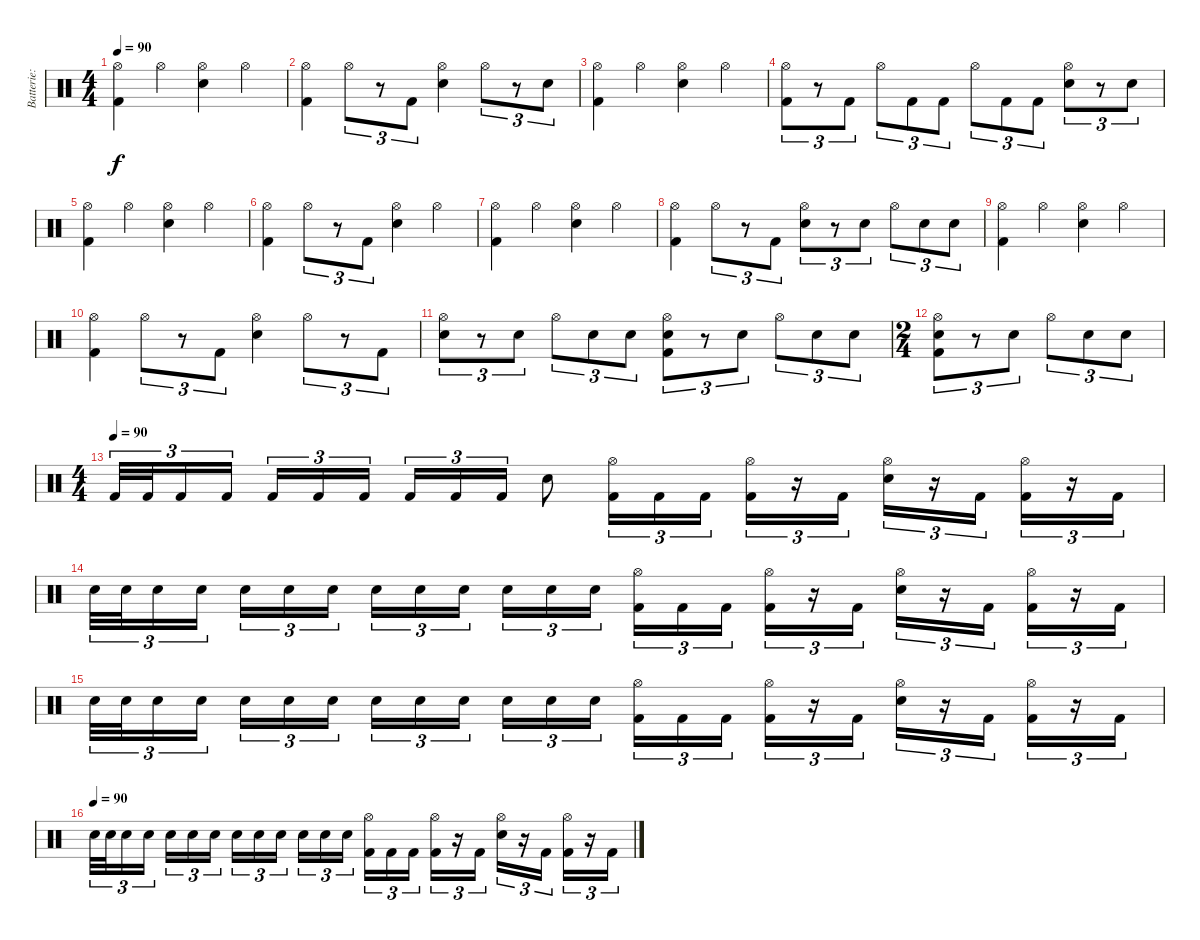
\track ("Batterie: Paul" "Batterie: ") {instrument percussion}
\staff {score}
\articulation defaults
\ts (4 4)
\tempo 90
\clef neutral
\ks c
("Hi-Hat (open)" "Kick (hit) 2").4{dy f} "Hi-Hat (open)".4 ("Hi-Hat (open)" "Snare (hit) 2").4 "Hi-Hat (open)".4 |
("Hi-Hat (open)" "Kick (hit) 2").4 "Hi-Hat (open)".8{tu (3 2)} r.8{tu (3 2)} "Kick (hit) 2".8{tu (3 2)} ("Hi-Hat (open)" "Snare (hit) 2").4 "Hi-Hat (open)".8{tu (3 2)} r.8{tu (3 2)} "Snare (hit) 2".8{tu (3 2)} |
("Hi-Hat (open)" "Kick (hit) 2").4 "Hi-Hat (open)".4 ("Hi-Hat (open)" "Snare (hit) 2").4 "Hi-Hat (open)".4 |
("Hi-Hat (open)" "Kick (hit) 2").8{tu (3 2)} r.8{tu (3 2)} "Kick (hit) 2".8{tu (3 2)} "Hi-Hat (open)".8{tu (3 2)} "Kick (hit) 2".8{tu (3 2)} "Kick (hit) 2".8{tu (3 2)} "Hi-Hat (open)".8{tu (3 2)} "Kick (hit) 2".8{tu (3 2)} "Kick (hit) 2".8{tu (3 2)} ("Hi-Hat (open)" "Snare (hit) 2").8{tu (3 2)} r.8{tu (3 2)} "Snare (hit) 2".8{tu (3 2)} |
("Hi-Hat (open)" "Kick (hit) 2").4 "Hi-Hat (open)".4 ("Hi-Hat (open)" "Snare (hit) 2").4 "Hi-Hat (open)".4 |
("Hi-Hat (open)" "Kick (hit) 2").4 "Hi-Hat (open)".8{tu (3 2)} r.8{tu (3 2)} "Kick (hit) 2".8{tu (3 2)} ("Hi-Hat (open)" "Snare (hit) 2").4 "Hi-Hat (open)".4 |
("Hi-Hat (open)" "Kick (hit) 2").4 "Hi-Hat (open)".4 ("Hi-Hat (open)" "Snare (hit) 2").4 "Hi-Hat (open)".4 |
("Hi-Hat (open)" "Kick (hit) 2").4 "Hi-Hat (open)".8{tu (3 2)} r.8{tu (3 2)} "Kick (hit) 2".8{tu (3 2)} ("Hi-Hat (open)" "Snare (hit) 2").8{tu (3 2)} r.8{tu (3 2)} "Snare (hit) 2".8{tu (3 2)} "Hi-Hat (open)".8{tu (3 2)} "Snare (hit) 2".8{tu (3 2)} "Snare (hit) 2".8{tu (3 2)} |
("Hi-Hat (open)" "Kick (hit) 2").4 "Hi-Hat (open)".4 ("Hi-Hat (open)" "Snare (hit) 2").4 "Hi-Hat (open)".4 |
("Hi-Hat (open)" "Kick (hit) 2").4 "Hi-Hat (open)".8{tu (3 2)} r.8{tu (3 2)} "Kick (hit) 2".8{tu (3 2)} ("Hi-Hat (open)" "Snare (hit) 2").4 "Hi-Hat (open)".8{tu (3 2)} r.8{tu (3 2)} "Kick (hit) 2".8{tu (3 2)} |
("Hi-Hat (open)" "Snare (hit) 2").8{tu (3 2)} r.8{tu (3 2)} "Snare (hit) 2".8{tu (3 2)} "Hi-Hat (open)".8{tu (3 2)} "Snare (hit) 2".8{tu (3 2)} "Snare (hit) 2".8{tu (3 2)} ("Hi-Hat (open)" "Snare (hit) 2" "Kick (hit) 2").8{tu (3 2)} r.8{tu (3 2)} "Snare (hit) 2".8{tu (3 2)} "Hi-Hat (open)".8{tu (3 2)} "Snare (hit) 2".8{tu (3 2)} "Snare (hit) 2".8{tu (3 2)} |
\ts (2 4)
("Hi-Hat (open)" "Snare (hit) 2" "Kick (hit) 2").8{tu (3 2)} r.8{tu (3 2)} "Snare (hit) 2".8{tu (3 2)} "Hi-Hat (open)".8{tu (3 2)} "Snare (hit) 2".8{tu (3 2)} "Snare (hit) 2".8{tu (3 2)} |
\ts (4 4)
\tempo (90)
"Kick (hit) 2".32{tu (3 2)} "Kick (hit) 2".32{tu (3 2)} "Kick (hit) 2".16{tu (3 2)} "Kick (hit) 2".16{tu (3 2)} "Kick (hit) 2".16{tu (3 2)} "Kick (hit) 2".16{tu (3 2)} "Kick (hit) 2".16{tu (3 2)} "Kick (hit) 2".16{tu (3 2)} "Kick (hit) 2".16{tu (3 2)} "Kick (hit) 2".16{tu (3 2)} "Snare (hit) 2".8 ("Hi-Hat (open)" "Kick (hit) 2").16{tu (3 2)} "Kick (hit) 2".16{tu (3 2)} "Kick (hit) 2".16{tu (3 2)} ("Hi-Hat (open)" "Kick (hit) 2").16{tu (3 2)} r.16{tu (3 2)} "Kick (hit) 2".16{tu (3 2)} ("Hi-Hat (open)" "Snare (hit) 2").16{tu (3 2)} r.16{tu (3 2)} "Kick (hit) 2".16{tu (3 2)} ("Hi-Hat (open)" "Kick (hit) 2").16{tu (3 2)} r.16{tu (3 2)} "Kick (hit) 2".16{tu (3 2)} |
"Snare (hit) 2".32{tu (3 2)} "Snare (hit) 2".32{tu (3 2)} "Snare (hit) 2".16{tu (3 2)} "Snare (hit) 2".16{tu (3 2)} "Snare (hit) 2".16{tu (3 2)} "Snare (hit) 2".16{tu (3 2)} "Snare (hit) 2".16{tu (3 2)} "Snare (hit) 2".16{tu (3 2)} "Snare (hit) 2".16{tu (3 2)} "Snare (hit) 2".16{tu (3 2)} "Snare (hit) 2".16{tu (3 2)} "Snare (hit) 2".16{tu (3 2)} "Snare (hit) 2".16{tu (3 2)} ("Hi-Hat (open)" "Kick (hit) 2").16{tu (3 2)} "Kick (hit) 2".16{tu (3 2)} "Kick (hit) 2".16{tu (3 2)} ("Hi-Hat (open)" "Kick (hit) 2").16{tu (3 2)} r.16{tu (3 2)} "Kick (hit) 2".16{tu (3 2)} ("Hi-Hat (open)" "Snare (hit) 2").16{tu (3 2)} r.16{tu (3 2)} "Kick (hit) 2".16{tu (3 2)} ("Hi-Hat (open)" "Kick (hit) 2").16{tu (3 2)} r.16{tu (3 2)} "Kick (hit) 2".16{tu (3 2)} |
"Snare (hit) 2".32{tu (3 2)} "Snare (hit) 2".32{tu (3 2)} "Snare (hit) 2".16{tu (3 2)} "Snare (hit) 2".16{tu (3 2)} "Snare (hit) 2".16{tu (3 2)} "Snare (hit) 2".16{tu (3 2)} "Snare (hit) 2".16{tu (3 2)} "Snare (hit) 2".16{tu (3 2)} "Snare (hit) 2".16{tu (3 2)} "Snare (hit) 2".16{tu (3 2)} "Snare (hit) 2".16{tu (3 2)} "Snare (hit) 2".16{tu (3 2)} "Snare (hit) 2".16{tu (3 2)} ("Hi-Hat (open)" "Kick (hit) 2").16{tu (3 2)} "Kick (hit) 2".16{tu (3 2)} "Kick (hit) 2".16{tu (3 2)} ("Hi-Hat (open)" "Kick (hit) 2").16{tu (3 2)} r.16{tu (3 2)} "Kick (hit) 2".16{tu (3 2)} ("Hi-Hat (open)" "Snare (hit) 2").16{tu (3 2)} r.16{tu (3 2)} "Kick (hit) 2".16{tu (3 2)} ("Hi-Hat (open)" "Kick (hit) 2").16{tu (3 2)} r.16{tu (3 2)} "Kick (hit) 2".16{tu (3 2)} |
\tempo (90)
"Snare (hit) 2".32{tu (3 2)} "Snare (hit) 2".32{tu (3 2)} "Snare (hit) 2".16{tu (3 2)} "Snare (hit) 2".16{tu (3 2)} "Snare (hit) 2".16{tu (3 2)} "Snare (hit) 2".16{tu (3 2)} "Snare (hit) 2".16{tu (3 2)} "Snare (hit) 2".16{tu (3 2)} "Snare (hit) 2".16{tu (3 2)} "Snare (hit) 2".16{tu (3 2)} "Snare (hit) 2".16{tu (3 2)} "Snare (hit) 2".16{tu (3 2)} "Snare (hit) 2".16{tu (3 2)} ("Hi-Hat (open)" "Kick (hit) 2").16{tu (3 2)} "Kick (hit) 2".16{tu (3 2)} "Kick (hit) 2".16{tu (3 2)} ("Hi-Hat (open)" "Kick (hit) 2").16{tu (3 2)} r.16{tu (3 2)} "Kick (hit) 2".16{tu (3 2)} ("Hi-Hat (open)" "Snare (hit) 2").16{tu (3 2)} r.16{tu (3 2)} "Kick (hit) 2".16{tu (3 2)} ("Hi-Hat (open)" "Kick (hit) 2").16{tu (3 2)} r.16{tu (3 2)} "Kick (hit) 2".16{tu (3 2)}
